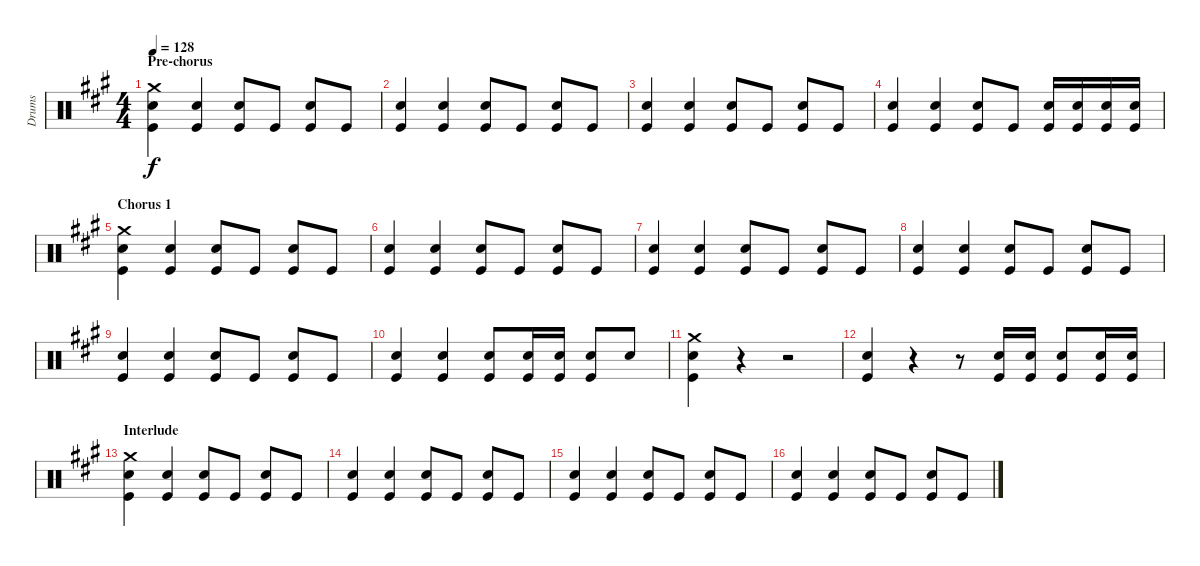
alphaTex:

\defaultSystemsLayout 4
\bracketExtendMode groupsimilarinstruments
\otherSystemsTrackNameOrientation horizontal
\track ("Drumkit" "Drums") {instrument percussion}
\staff {score}
\articulation defaults
\ts (4 4)
\section ("" "Pre-chorus")
\tempo 128
\clef neutral
\ks a
("Crash medium (hit)" "Snare (hit) 2" "Kick (hit)").4{dy f} ("Snare (hit) 2" "Kick (hit)").4 ("Snare (hit) 2" "Kick (hit)").8 "Kick (hit)".8 ("Snare (hit) 2" "Kick (hit)").8 "Kick (hit)".8 |
("Snare (hit) 2" "Kick (hit)").4 ("Snare (hit) 2" "Kick (hit)").4 ("Snare (hit) 2" "Kick (hit)").8 "Kick (hit)".8 ("Snare (hit) 2" "Kick (hit)").8 "Kick (hit)".8 |
("Snare (hit) 2" "Kick (hit)").4 ("Snare (hit) 2" "Kick (hit)").4 ("Snare (hit) 2" "Kick (hit)").8 "Kick (hit)".8 ("Snare (hit) 2" "Kick (hit)").8 "Kick (hit)".8 |
("Snare (hit) 2" "Kick (hit)").4 ("Snare (hit) 2" "Kick (hit)").4 ("Snare (hit) 2" "Kick (hit)").8 "Kick (hit)".8 ("Snare (hit) 2" "Kick (hit)").16 ("Snare (hit) 2" "Kick (hit)").16 ("Snare (hit) 2" "Kick (hit)").16 ("Snare (hit) 2" "Kick (hit)").16 |
\section ("" "Chorus 1")
("Crash medium (hit)" "Snare (hit) 2" "Kick (hit)").4 ("Snare (hit) 2" "Kick (hit)").4 ("Snare (hit) 2" "Kick (hit)").8 "Kick (hit)".8 ("Snare (hit) 2" "Kick (hit)").8 "Kick (hit)".8 |
("Snare (hit) 2" "Kick (hit)").4 ("Snare (hit) 2" "Kick (hit)").4 ("Snare (hit) 2" "Kick (hit)").8 "Kick (hit)".8 ("Snare (hit) 2" "Kick (hit)").8 "Kick (hit)".8 |
("Snare (hit) 2" "Kick (hit)").4 ("Snare (hit) 2" "Kick (hit)").4 ("Snare (hit) 2" "Kick (hit)").8 "Kick (hit)".8 ("Snare (hit) 2" "Kick (hit)").8 "Kick (hit)".8 |
("Snare (hit) 2" "Kick (hit)").4 ("Snare (hit) 2" "Kick (hit)").4 ("Snare (hit) 2" "Kick (hit)").8 "Kick (hit)".8 ("Snare (hit) 2" "Kick (hit)").8 "Kick (hit)".8 |
("Snare (hit) 2" "Kick (hit)").4 ("Snare (hit) 2" "Kick (hit)").4 ("Snare (hit) 2" "Kick (hit)").8 "Kick (hit)".8 ("Snare (hit) 2" "Kick (hit)").8 "Kick (hit)".8 |
("Snare (hit) 2" "Kick (hit)").4 ("Snare (hit) 2" "Kick (hit)").4 ("Snare (hit) 2" "Kick (hit)").8 ("Snare (hit) 2" "Kick (hit)").16 ("Snare (hit) 2" "Kick (hit)").16 ("Snare (hit) 2" "Kick (hit)").8 "Snare (hit) 2".8 |
("Snare (hit) 2" "Kick (hit)" "Crash medium (hit)").4 r.4 r.2 |
("Snare (hit) 2" "Kick (hit)").4 r.4 r.8 ("Snare (hit) 2" "Kick (hit)").16 ("Snare (hit) 2" "Kick (hit)").16 ("Snare (hit) 2" "Kick (hit)").8 ("Snare (hit) 2" "Kick (hit)").16 ("Snare (hit) 2" "Kick (hit)").16 |
\section ("" "Interlude")
("Crash medium (hit)" "Snare (hit) 2" "Kick (hit)").4 ("Snare (hit) 2" "Kick (hit)").4 ("Snare (hit) 2" "Kick (hit)").8 "Kick (hit)".8 ("Snare (hit) 2" "Kick (hit)").8 "Kick (hit)".8 |
("Snare (hit) 2" "Kick (hit)").4 ("Snare (hit) 2" "Kick (hit)").4 ("Snare (hit) 2" "Kick (hit)").8 "Kick (hit)".8 ("Snare (hit) 2" "Kick (hit)").8 "Kick (hit)".8 |
("Snare (hit) 2" "Kick (hit)").4 ("Snare (hit) 2" "Kick (hit)").4 ("Snare (hit) 2" "Kick (hit)").8 "Kick (hit)".8 ("Snare (hit) 2" "Kick (hit)").8 "Kick (hit)".8 |
("Snare (hit) 2" "Kick (hit)").4 ("Snare (hit) 2" "Kick (hit)").4 ("Snare (hit) 2" "Kick (hit)").8 "Kick (hit)".8 ("Snare (hit) 2" "Kick (hit)").8 "Kick (hit)".8
